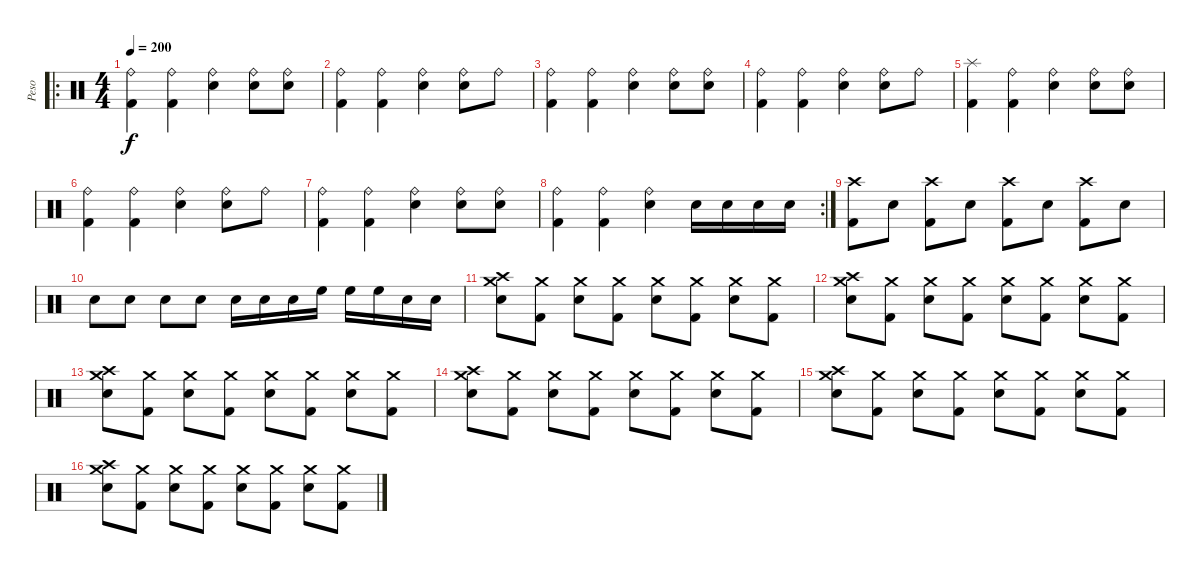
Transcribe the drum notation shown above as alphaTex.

\track ("Peso" "Peso") {instrument percussion}
\staff {score}
\articulation defaults
\ro
\ts (4 4)
\tempo 200
\clef neutral
\ks c
("Ride (bell)" "Kick (hit) 2").4{dy f} ("Ride (bell)" "Kick (hit) 2").4 ("Ride (bell)" "Snare (hit) 2").4 ("Ride (bell)" "Snare (hit) 2").8 ("Ride (bell)" "Snare (hit) 2").8 |
("Ride (bell)" "Kick (hit) 2").4 ("Ride (bell)" "Kick (hit) 2").4 ("Ride (bell)" "Snare (hit) 2").4 ("Ride (bell)" "Snare (hit) 2").8 "Ride (bell)".8 |
("Ride (bell)" "Kick (hit) 2").4 ("Ride (bell)" "Kick (hit) 2").4 ("Ride (bell)" "Snare (hit) 2").4 ("Ride (bell)" "Snare (hit) 2").8 ("Ride (bell)" "Snare (hit) 2").8 |
("Ride (bell)" "Kick (hit) 2").4 ("Ride (bell)" "Kick (hit) 2").4 ("Ride (bell)" "Snare (hit) 2").4 ("Ride (bell)" "Snare (hit) 2").8 "Ride (bell)".8 |
("Splash (hit)" "Kick (hit) 2").4 ("Ride (bell)" "Kick (hit) 2").4 ("Ride (bell)" "Snare (hit) 2").4 ("Ride (bell)" "Snare (hit) 2").8 ("Ride (bell)" "Snare (hit) 2").8 |
("Ride (bell)" "Kick (hit) 2").4 ("Ride (bell)" "Kick (hit) 2").4 ("Ride (bell)" "Snare (hit) 2").4 ("Ride (bell)" "Snare (hit) 2").8 "Ride (bell)".8 |
("Ride (bell)" "Kick (hit) 2").4 ("Ride (bell)" "Kick (hit) 2").4 ("Ride (bell)" "Snare (hit) 2").4 ("Ride (bell)" "Snare (hit) 2").8 ("Ride (bell)" "Snare (hit) 2").8 |
\rc 2
("Ride (bell)" "Kick (hit) 2").4 ("Ride (bell)" "Kick (hit) 2").4 ("Ride (bell)" "Snare (hit) 2").4 "Snare (hit) 2".16 "Snare (hit) 2".16 "Snare (hit) 2".16 "Snare (hit) 2".16 |
("Crash high (hit)" "Kick (hit) 2").8 "Snare (hit) 2".8 ("Crash high (hit)" "Kick (hit) 2").8 "Snare (hit) 2".8 ("Crash high (hit)" "Kick (hit) 2").8 "Snare (hit) 2".8 ("Crash high (hit)" "Kick (hit) 2").8 "Snare (hit) 2".8 |
"Snare (hit) 2".8 "Snare (hit) 2".8 "Snare (hit) 2".8 "Snare (hit) 2".8 "Snare (hit) 2".16 "Snare (hit) 2".16 "Snare (hit) 2".16 "High Floor Tom (hit)".16 "High Floor Tom (hit)".16 "High Floor Tom (hit)".16 "Snare (hit) 2".16 "Snare (hit) 2".16 |
("Crash high (hit)" "Crash medium (hit)" "Snare (hit) 2").8 ("Crash medium (hit)"{x} "Kick (hit) 2").8 ("Crash medium (hit)" "Snare (hit) 2").8 ("Crash medium (hit)"{x} "Kick (hit) 2").8 ("Crash medium (hit)" "Snare (hit) 2").8 ("Crash medium (hit)"{x} "Kick (hit) 2").8 ("Crash medium (hit)" "Snare (hit) 2").8 ("Crash medium (hit)"{x} "Kick (hit) 2").8 |
("Crash high (hit)" "Crash medium (hit)" "Snare (hit) 2").8 ("Crash medium (hit)"{x} "Kick (hit) 2").8 ("Crash medium (hit)" "Snare (hit) 2").8 ("Crash medium (hit)"{x} "Kick (hit) 2").8 ("Crash medium (hit)" "Snare (hit) 2").8 ("Crash medium (hit)"{x} "Kick (hit) 2").8 ("Crash medium (hit)" "Snare (hit) 2").8 ("Crash medium (hit)"{x} "Kick (hit) 2").8 |
("Crash high (hit)" "Crash medium (hit)" "Snare (hit) 2").8 ("Crash medium (hit)"{x} "Kick (hit) 2").8 ("Crash medium (hit)" "Snare (hit) 2").8 ("Crash medium (hit)"{x} "Kick (hit) 2").8 ("Crash medium (hit)" "Snare (hit) 2").8 ("Crash medium (hit)"{x} "Kick (hit) 2").8 ("Crash medium (hit)" "Snare (hit) 2").8 ("Crash medium (hit)"{x} "Kick (hit) 2").8 |
("Crash high (hit)" "Crash medium (hit)" "Snare (hit) 2").8 ("Crash medium (hit)"{x} "Kick (hit) 2").8 ("Crash medium (hit)" "Snare (hit) 2").8 ("Crash medium (hit)"{x} "Kick (hit) 2").8 ("Crash medium (hit)" "Snare (hit) 2").8 ("Crash medium (hit)"{x} "Kick (hit) 2").8 ("Crash medium (hit)" "Snare (hit) 2").8 ("Crash medium (hit)"{x} "Kick (hit) 2").8 |
("Crash high (hit)" "Crash medium (hit)" "Snare (hit) 2").8 ("Crash medium (hit)"{x} "Kick (hit) 2").8 ("Crash medium (hit)" "Snare (hit) 2").8 ("Crash medium (hit)"{x} "Kick (hit) 2").8 ("Crash medium (hit)" "Snare (hit) 2").8 ("Crash medium (hit)"{x} "Kick (hit) 2").8 ("Crash medium (hit)" "Snare (hit) 2").8 ("Crash medium (hit)"{x} "Kick (hit) 2").8 |
("Crash high (hit)" "Crash medium (hit)" "Snare (hit) 2").8 ("Crash medium (hit)"{x} "Kick (hit) 2").8 ("Crash medium (hit)" "Snare (hit) 2").8 ("Crash medium (hit)"{x} "Kick (hit) 2").8 ("Crash medium (hit)" "Snare (hit) 2").8 ("Crash medium (hit)"{x} "Kick (hit) 2").8 ("Crash medium (hit)" "Snare (hit) 2").8 ("Crash medium (hit)"{x} "Kick (hit) 2").8
